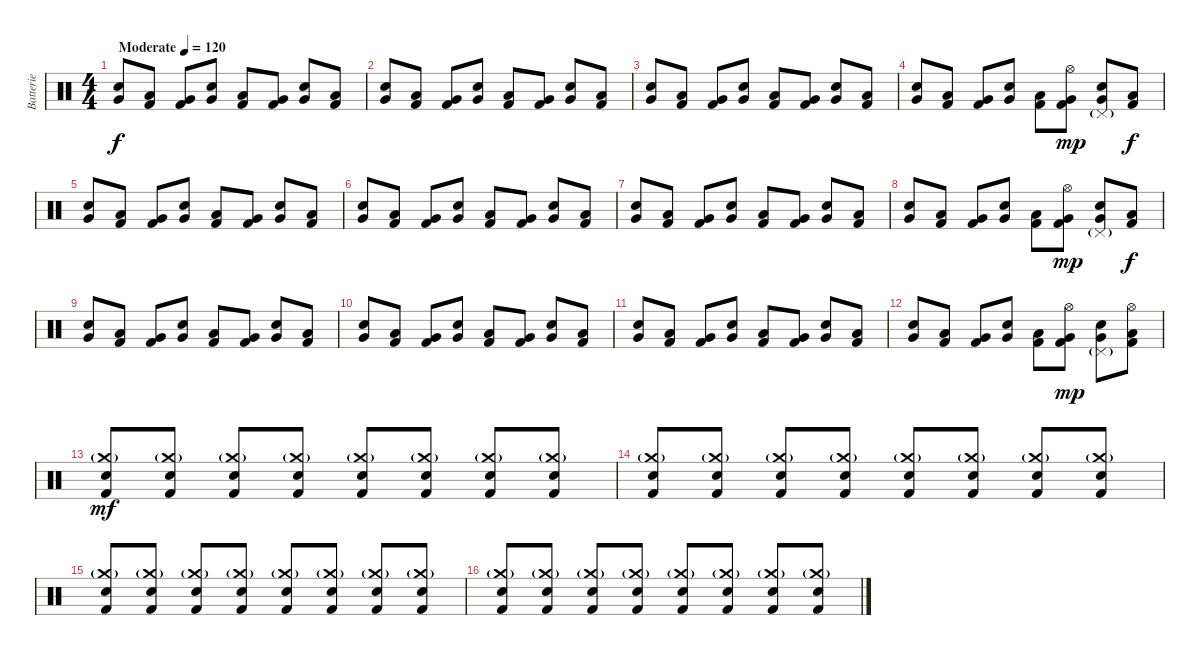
\track ("Batterie" "Batterie") {instrument percussion}
\staff {score}
\articulation defaults
\ts (4 4)
\tempo (120 "Moderate")
\clef neutral
\ks c
("Very Low Tom (hit)" "Snare (hit) 2").8{dy f} ("Low Tom (hit)" "Kick (hit) 2").8 ("Very Low Tom (hit)" "Kick (hit) 2").8 ("Very Low Tom (hit)" "Snare (hit) 2").8 ("Low Tom (hit)" "Kick (hit) 2").8 ("Very Low Tom (hit)" "Kick (hit) 2").8 ("Very Low Tom (hit)" "Snare (hit) 2").8 ("Low Tom (hit)" "Kick (hit) 2").8 |
("Very Low Tom (hit)" "Snare (hit) 2").8 ("Low Tom (hit)" "Kick (hit) 2").8 ("Very Low Tom (hit)" "Kick (hit) 2").8 ("Very Low Tom (hit)" "Snare (hit) 2").8 ("Low Tom (hit)" "Kick (hit) 2").8 ("Very Low Tom (hit)" "Kick (hit) 2").8 ("Very Low Tom (hit)" "Snare (hit) 2").8 ("Low Tom (hit)" "Kick (hit) 2").8 |
("Very Low Tom (hit)" "Snare (hit) 2").8 ("Low Tom (hit)" "Kick (hit) 2").8 ("Very Low Tom (hit)" "Kick (hit) 2").8 ("Very Low Tom (hit)" "Snare (hit) 2").8 ("Low Tom (hit)" "Kick (hit) 2").8 ("Very Low Tom (hit)" "Kick (hit) 2").8 ("Very Low Tom (hit)" "Snare (hit) 2").8 ("Low Tom (hit)" "Kick (hit) 2").8 |
("Very Low Tom (hit)" "Snare (hit) 2").8 ("Low Tom (hit)" "Kick (hit) 2").8 ("Very Low Tom (hit)" "Kick (hit) 2").8 ("Very Low Tom (hit)" "Snare (hit) 2").8 ("Low Tom (hit)" "Kick (hit) 2").8 ("Hi-Hat (open)" "Very Low Tom (hit)" "Kick (hit) 2").8{dy mp} ("Pedal Hi-Hat (hit)"{g} "Very Low Tom (hit)" "Snare (hit) 2").8 ("Low Tom (hit)" "Kick (hit) 2").8{dy f} |
("Very Low Tom (hit)" "Snare (hit) 2").8 ("Low Tom (hit)" "Kick (hit) 2").8 ("Very Low Tom (hit)" "Kick (hit) 2").8 ("Very Low Tom (hit)" "Snare (hit) 2").8 ("Low Tom (hit)" "Kick (hit) 2").8 ("Very Low Tom (hit)" "Kick (hit) 2").8 ("Very Low Tom (hit)" "Snare (hit) 2").8 ("Low Tom (hit)" "Kick (hit) 2").8 |
("Very Low Tom (hit)" "Snare (hit) 2").8 ("Low Tom (hit)" "Kick (hit) 2").8 ("Very Low Tom (hit)" "Kick (hit) 2").8 ("Very Low Tom (hit)" "Snare (hit) 2").8 ("Low Tom (hit)" "Kick (hit) 2").8 ("Very Low Tom (hit)" "Kick (hit) 2").8 ("Very Low Tom (hit)" "Snare (hit) 2").8 ("Low Tom (hit)" "Kick (hit) 2").8 |
("Very Low Tom (hit)" "Snare (hit) 2").8 ("Low Tom (hit)" "Kick (hit) 2").8 ("Very Low Tom (hit)" "Kick (hit) 2").8 ("Very Low Tom (hit)" "Snare (hit) 2").8 ("Low Tom (hit)" "Kick (hit) 2").8 ("Very Low Tom (hit)" "Kick (hit) 2").8 ("Very Low Tom (hit)" "Snare (hit) 2").8 ("Low Tom (hit)" "Kick (hit) 2").8 |
("Very Low Tom (hit)" "Snare (hit) 2").8 ("Low Tom (hit)" "Kick (hit) 2").8 ("Very Low Tom (hit)" "Kick (hit) 2").8 ("Very Low Tom (hit)" "Snare (hit) 2").8 ("Low Tom (hit)" "Kick (hit) 2").8 ("Hi-Hat (open)" "Very Low Tom (hit)" "Kick (hit) 2").8{dy mp} ("Pedal Hi-Hat (hit)"{g} "Very Low Tom (hit)" "Snare (hit) 2").8 ("Low Tom (hit)" "Kick (hit) 2").8{dy f} |
("Very Low Tom (hit)" "Snare (hit) 2").8 ("Low Tom (hit)" "Kick (hit) 2").8 ("Very Low Tom (hit)" "Kick (hit) 2").8 ("Very Low Tom (hit)" "Snare (hit) 2").8 ("Low Tom (hit)" "Kick (hit) 2").8 ("Very Low Tom (hit)" "Kick (hit) 2").8 ("Very Low Tom (hit)" "Snare (hit) 2").8 ("Low Tom (hit)" "Kick (hit) 2").8 |
("Very Low Tom (hit)" "Snare (hit) 2").8 ("Low Tom (hit)" "Kick (hit) 2").8 ("Very Low Tom (hit)" "Kick (hit) 2").8 ("Very Low Tom (hit)" "Snare (hit) 2").8 ("Low Tom (hit)" "Kick (hit) 2").8 ("Very Low Tom (hit)" "Kick (hit) 2").8 ("Very Low Tom (hit)" "Snare (hit) 2").8 ("Low Tom (hit)" "Kick (hit) 2").8 |
("Very Low Tom (hit)" "Snare (hit) 2").8 ("Low Tom (hit)" "Kick (hit) 2").8 ("Very Low Tom (hit)" "Kick (hit) 2").8 ("Very Low Tom (hit)" "Snare (hit) 2").8 ("Low Tom (hit)" "Kick (hit) 2").8 ("Very Low Tom (hit)" "Kick (hit) 2").8 ("Very Low Tom (hit)" "Snare (hit) 2").8 ("Low Tom (hit)" "Kick (hit) 2").8 |
("Very Low Tom (hit)" "Snare (hit) 2").8 ("Low Tom (hit)" "Kick (hit) 2").8 ("Very Low Tom (hit)" "Kick (hit) 2").8 ("Very Low Tom (hit)" "Snare (hit) 2").8 ("Low Tom (hit)" "Kick (hit) 2").8 ("Hi-Hat (open)" "Very Low Tom (hit)" "Kick (hit) 2").8{dy mp} ("Pedal Hi-Hat (hit)"{g} "Very Low Tom (hit)" "Snare (hit) 2").8 ("Hi-Hat (open)" "Low Tom (hit)" "Kick (hit) 2").8 |
("Crash medium (hit)"{g} "Electric Snare (hit)" "Kick (hit) 2").8{dy mf} ("Crash medium (hit)"{g} "Electric Snare (hit)" "Kick (hit) 2").8 ("Crash medium (hit)"{g} "Electric Snare (hit)" "Kick (hit) 2").8 ("Crash medium (hit)"{g} "Electric Snare (hit)" "Kick (hit) 2").8 ("Crash medium (hit)"{g} "Electric Snare (hit)" "Kick (hit) 2").8 ("Crash medium (hit)"{g} "Electric Snare (hit)" "Kick (hit) 2").8 ("Crash medium (hit)"{g} "Electric Snare (hit)" "Kick (hit) 2").8 ("Crash medium (hit)"{g} "Electric Snare (hit)" "Kick (hit) 2").8 |
("Crash medium (hit)"{g} "Electric Snare (hit)" "Kick (hit) 2").8 ("Crash medium (hit)"{g} "Electric Snare (hit)" "Kick (hit) 2").8 ("Crash medium (hit)"{g} "Electric Snare (hit)" "Kick (hit) 2").8 ("Crash medium (hit)"{g} "Electric Snare (hit)" "Kick (hit) 2").8 ("Crash medium (hit)"{g} "Electric Snare (hit)" "Kick (hit) 2").8 ("Crash medium (hit)"{g} "Electric Snare (hit)" "Kick (hit) 2").8 ("Crash medium (hit)"{g} "Electric Snare (hit)" "Kick (hit) 2").8 ("Crash medium (hit)"{g} "Electric Snare (hit)" "Kick (hit) 2").8 |
("Crash medium (hit)"{g} "Electric Snare (hit)" "Kick (hit) 2").8 ("Crash medium (hit)"{g} "Electric Snare (hit)" "Kick (hit) 2").8 ("Crash medium (hit)"{g} "Electric Snare (hit)" "Kick (hit) 2").8 ("Crash medium (hit)"{g} "Electric Snare (hit)" "Kick (hit) 2").8 ("Crash medium (hit)"{g} "Electric Snare (hit)" "Kick (hit) 2").8 ("Crash medium (hit)"{g} "Electric Snare (hit)" "Kick (hit) 2").8 ("Crash medium (hit)"{g} "Electric Snare (hit)" "Kick (hit) 2").8 ("Crash medium (hit)"{g} "Electric Snare (hit)" "Kick (hit) 2").8 |
("Crash medium (hit)"{g} "Electric Snare (hit)" "Kick (hit) 2").8 ("Crash medium (hit)"{g} "Electric Snare (hit)" "Kick (hit) 2").8 ("Crash medium (hit)"{g} "Electric Snare (hit)" "Kick (hit) 2").8 ("Crash medium (hit)"{g} "Electric Snare (hit)" "Kick (hit) 2").8 ("Crash medium (hit)"{g} "Electric Snare (hit)" "Kick (hit) 2").8 ("Crash medium (hit)"{g} "Electric Snare (hit)" "Kick (hit) 2").8 ("Crash medium (hit)"{g} "Electric Snare (hit)" "Kick (hit) 2").8 ("Crash medium (hit)"{g} "Electric Snare (hit)" "Kick (hit) 2").8
